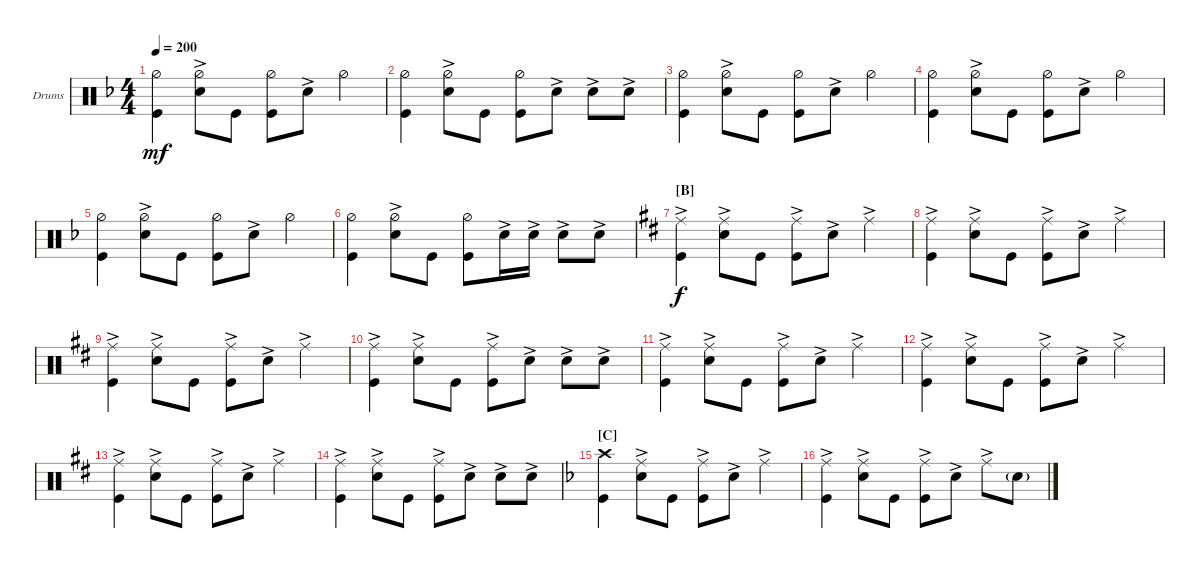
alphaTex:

\bracketExtendMode groupsimilarinstruments
\firstSystemTrackNameOrientation horizontal
\otherSystemsTrackNameOrientation horizontal
\track ("Drumkit" "Drums") {instrument percussion}
\staff {score}
\articulation defaults
\ts (4 4)
\tempo 200
\clef neutral
\ks dminor
("Hi-Hat (half)" "Kick (hit)").4{dy mf} ("Hi-Hat (half)" "Snare (hit) 2"{ac}).8 "Kick (hit)".8 ("Hi-Hat (half)" "Kick (hit)").8 "Snare (hit) 2"{ac}.8 "Hi-Hat (half)".4 |
("Hi-Hat (half)" "Kick (hit)").4 ("Hi-Hat (half)" "Snare (hit) 2"{ac}).8 "Kick (hit)".8 ("Hi-Hat (half)" "Kick (hit)").8 "Snare (hit) 2"{ac}.8 "Snare (hit) 2"{ac}.8 "Snare (hit) 2"{ac}.8 |
("Hi-Hat (half)" "Kick (hit)").4 ("Hi-Hat (half)" "Snare (hit) 2"{ac}).8 "Kick (hit)".8 ("Hi-Hat (half)" "Kick (hit)").8 "Snare (hit) 2"{ac}.8 "Hi-Hat (half)".4 |
("Hi-Hat (half)" "Kick (hit)").4 ("Hi-Hat (half)" "Snare (hit) 2"{ac}).8 "Kick (hit)".8 ("Hi-Hat (half)" "Kick (hit)").8 "Snare (hit) 2"{ac}.8 "Hi-Hat (half)".4 |
("Hi-Hat (half)" "Kick (hit)").4 ("Hi-Hat (half)" "Snare (hit) 2"{ac}).8 "Kick (hit)".8 ("Hi-Hat (half)" "Kick (hit)").8 "Snare (hit) 2"{ac}.8 "Hi-Hat (half)".4 |
("Hi-Hat (half)" "Kick (hit)").4 ("Hi-Hat (half)" "Snare (hit) 2"{ac}).8 "Kick (hit)".8 ("Hi-Hat (half)" "Kick (hit)").8 "Snare (hit) 2"{ac}.16 "Snare (hit) 2"{ac}.16 "Snare (hit) 2"{ac}.8 "Snare (hit) 2"{ac}.8 |
\section ("B" "")
\ks bminor
("Kick (hit)" "Ride (middle)"{ac}).4{dy f} ("Snare (hit) 2"{ac} "Ride (middle)"{ac}).8 "Kick (hit)".8 ("Kick (hit)" "Ride (middle)"{ac}).8 "Snare (hit) 2"{ac}.8 "Ride (middle)"{ac}.4 |
("Kick (hit)" "Ride (middle)"{ac}).4 ("Snare (hit) 2"{ac} "Ride (middle)"{ac}).8 "Kick (hit)".8 ("Kick (hit)" "Ride (middle)"{ac}).8 "Snare (hit) 2"{ac}.8 "Ride (middle)"{ac}.4 |
("Kick (hit)" "Ride (middle)"{ac}).4 ("Snare (hit) 2"{ac} "Ride (middle)"{ac}).8 "Kick (hit)".8 ("Kick (hit)" "Ride (middle)"{ac}).8 "Snare (hit) 2"{ac}.8 "Ride (middle)"{ac}.4 |
("Kick (hit)" "Ride (middle)"{ac}).4 ("Snare (hit) 2"{ac} "Ride (middle)"{ac}).8 "Kick (hit)".8 ("Kick (hit)" "Ride (middle)"{ac}).8 "Snare (hit) 2"{ac}.8 "Snare (hit) 2"{ac}.8 "Snare (hit) 2"{ac}.8 |
("Kick (hit)" "Ride (middle)"{ac}).4 ("Snare (hit) 2"{ac} "Ride (middle)"{ac}).8 "Kick (hit)".8 ("Kick (hit)" "Ride (middle)"{ac}).8 "Snare (hit) 2"{ac}.8 "Ride (middle)"{ac}.4 |
("Kick (hit)" "Ride (middle)"{ac}).4 ("Snare (hit) 2"{ac} "Ride (middle)"{ac}).8 "Kick (hit)".8 ("Kick (hit)" "Ride (middle)"{ac}).8 "Snare (hit) 2"{ac}.8 "Ride (middle)"{ac}.4 |
("Kick (hit)" "Ride (middle)"{ac}).4 ("Snare (hit) 2"{ac} "Ride (middle)"{ac}).8 "Kick (hit)".8 ("Kick (hit)" "Ride (middle)"{ac}).8 "Snare (hit) 2"{ac}.8 "Ride (middle)"{ac}.4 |
("Kick (hit)" "Ride (middle)"{ac}).4 ("Snare (hit) 2"{ac} "Ride (middle)"{ac}).8 "Kick (hit)".8 ("Kick (hit)" "Ride (middle)"{ac}).8 "Snare (hit) 2"{ac}.8 "Snare (hit) 2"{ac}.8 "Snare (hit) 2"{ac}.8 |
\section ("C" "")
\ks dminor
("Kick (hit)" "Crash high (hit)").4 ("Snare (hit) 2"{ac} "Ride (middle)"{ac}).8 "Kick (hit)".8 ("Kick (hit)" "Ride (middle)"{ac}).8 "Snare (hit) 2"{ac}.8 "Ride (middle)"{ac}.4 |
("Kick (hit)" "Ride (middle)"{ac}).4 ("Snare (hit) 2"{ac} "Ride (middle)"{ac}).8 "Kick (hit)".8 ("Kick (hit)" "Ride (middle)"{ac}).8 "Snare (hit) 2"{ac}.8 "Ride (middle)"{ac}.8 "Snare (hit) 2"{g}.8
